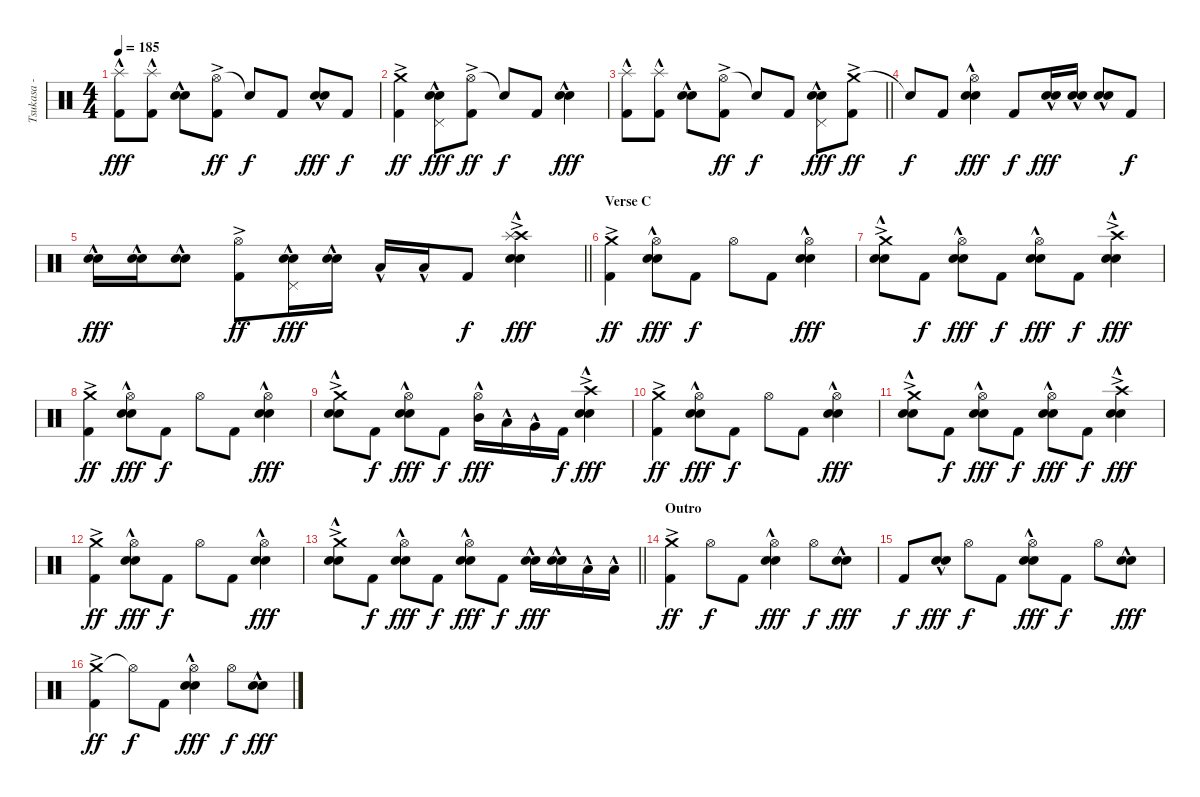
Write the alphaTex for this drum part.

\track ("Tsukasa - Drums" "Tsukasa - ") {instrument percussion}
\staff {score}
\articulation defaults
\ts (4 4)
\tempo 185
\clef neutral
\ks c
("Splash (hit)"{hac} "Kick (hit) 2").8{dy fff} ("Splash (hit)"{hac} "Kick (hit) 2").8 ("Electric Snare (hit)"{hac} "Snare (hit) 2"{hac}).8 ("Hi-Hat (open)"{ac} "Kick (hit) 2").8{dy ff} "Snare (hit)"{t}.8{dy f} "Kick (hit) 2".8 ("Electric Snare (hit)"{hac} "Snare (hit) 2"{hac}).8{dy fff} "Kick (hit) 2".8{dy f} |
("Crash medium (hit)"{ac} "Kick (hit) 2").4{dy ff} ("Pedal Hi-Hat (hit)" "Electric Snare (hit)"{hac} "Snare (hit) 2"{hac}).8{dy fff} ("Hi-Hat (open)"{ac} "Kick (hit) 2").8{dy ff} "Snare (hit)"{t}.8{dy f} "Kick (hit) 2".8 ("Electric Snare (hit)"{hac} "Snare (hit) 2"{hac}).4{dy fff} |
\barLineRight lightlight
("Splash (hit)"{hac} "Kick (hit) 2").8 ("Splash (hit)"{hac} "Kick (hit) 2").8 ("Electric Snare (hit)"{hac} "Snare (hit) 2"{hac}).8 ("Hi-Hat (open)"{ac} "Kick (hit) 2").8{dy ff} "Snare (hit)"{t}.8{dy f} "Kick (hit) 2".8 ("Pedal Hi-Hat (hit)" "Electric Snare (hit)"{hac} "Snare (hit) 2"{hac}).8{dy fff} ("Crash medium (hit)"{ac} "Kick (hit) 2").8{dy ff} |
"Snare (hit)"{t}.8{dy f} "Kick (hit) 2".8 ("Hi-Hat (open)" "Electric Snare (hit)"{hac} "Snare (hit) 2"{hac}).4{dy fff} "Kick (hit) 2".8{dy f} ("Electric Snare (hit)"{hac} "Snare (hit) 2"{hac}).16{dy fff} ("Electric Snare (hit)"{hac} "Snare (hit) 2"{hac}).16 ("Electric Snare (hit)"{hac} "Snare (hit) 2"{hac}).8 "Kick (hit) 2".8{dy f} |
\barLineRight lightlight
("Electric Snare (hit)"{hac} "Snare (hit) 2"{hac}).16{dy fff} ("Electric Snare (hit)"{hac} "Snare (hit) 2"{hac}).16 ("Electric Snare (hit)"{hac} "Snare (hit) 2"{hac}).8 ("Hi-Hat (open)"{ac} "Kick (hit) 2").8{dy ff} ("Pedal Hi-Hat (hit)" "Electric Snare (hit)"{hac} "Snare (hit) 2"{hac}).16{dy fff} ("Electric Snare (hit)"{hac} "Snare (hit) 2"{hac}).16 "Low Tom (hit)"{hac}.16 "Low Tom (hit)"{hac}.16 "Kick (hit) 2".8{dy f} ("Crash high (hit)"{ac} "Splash (hit)"{ac} "Electric Snare (hit)"{hac} "Snare (hit) 2"{hac}).4{dy fff} |
\section ("" "Verse C")
("Crash medium (hit)"{ac} "Kick (hit) 2").4{dy ff} ("Hi-Hat (open)" "Electric Snare (hit)"{hac} "Snare (hit) 2"{hac}).8{dy fff} "Kick (hit) 2".8{dy f} "Hi-Hat (open)".8 "Kick (hit) 2".8 ("Hi-Hat (open)" "Electric Snare (hit)"{hac} "Snare (hit) 2"{hac}).4{dy fff} |
("Crash medium (hit)"{ac} "Electric Snare (hit)"{hac} "Snare (hit) 2"{hac}).8 "Kick (hit) 2".8{dy f} ("Hi-Hat (open)" "Electric Snare (hit)"{hac} "Snare (hit) 2"{hac}).8{dy fff} "Kick (hit) 2".8{dy f} ("Hi-Hat (open)" "Electric Snare (hit)"{hac} "Snare (hit) 2"{hac}).8{dy fff} "Kick (hit) 2".8{dy f} ("Crash high (hit)"{ac} "Electric Snare (hit)"{hac} "Snare (hit) 2"{hac}).4{dy fff} |
("Crash medium (hit)"{ac} "Kick (hit) 2").4{dy ff} ("Hi-Hat (open)" "Electric Snare (hit)"{hac} "Snare (hit) 2"{hac}).8{dy fff} "Kick (hit) 2".8{dy f} "Hi-Hat (open)".8 "Kick (hit) 2".8 ("Hi-Hat (open)" "Electric Snare (hit)"{hac} "Snare (hit) 2"{hac}).4{dy fff} |
("Crash medium (hit)"{ac} "Electric Snare (hit)"{hac} "Snare (hit) 2"{hac}).8 "Kick (hit) 2".8{dy f} ("Hi-Hat (open)" "Electric Snare (hit)"{hac} "Snare (hit) 2"{hac}).8{dy fff} "Kick (hit) 2".8{dy f} ("Hi-Hat (open)" "Mid Tom (hit)"{hac}).16{dy fff} "Low Tom (hit)"{hac}.16 "Very Low Tom (hit)"{hac}.16 "Kick (hit) 2".16{dy f} ("Crash high (hit)"{ac} "Electric Snare (hit)"{hac} "Snare (hit) 2"{hac}).4{dy fff} |
("Crash medium (hit)"{ac} "Kick (hit) 2").4{dy ff} ("Hi-Hat (open)" "Electric Snare (hit)"{hac} "Snare (hit) 2"{hac}).8{dy fff} "Kick (hit) 2".8{dy f} "Hi-Hat (open)".8 "Kick (hit) 2".8 ("Hi-Hat (open)" "Electric Snare (hit)"{hac} "Snare (hit) 2"{hac}).4{dy fff} |
("Crash medium (hit)"{ac} "Electric Snare (hit)"{hac} "Snare (hit) 2"{hac}).8 "Kick (hit) 2".8{dy f} ("Hi-Hat (open)" "Electric Snare (hit)"{hac} "Snare (hit) 2"{hac}).8{dy fff} "Kick (hit) 2".8{dy f} ("Hi-Hat (open)" "Electric Snare (hit)"{hac} "Snare (hit) 2"{hac}).8{dy fff} "Kick (hit) 2".8{dy f} ("Crash high (hit)"{ac} "Electric Snare (hit)"{hac} "Snare (hit) 2"{hac}).4{dy fff} |
("Crash medium (hit)"{ac} "Kick (hit) 2").4{dy ff} ("Hi-Hat (open)" "Electric Snare (hit)"{hac} "Snare (hit) 2"{hac}).8{dy fff} "Kick (hit) 2".8{dy f} "Hi-Hat (open)".8 "Kick (hit) 2".8 ("Hi-Hat (open)" "Electric Snare (hit)"{hac} "Snare (hit) 2"{hac}).4{dy fff} |
\barLineRight lightlight
("Crash medium (hit)"{ac} "Electric Snare (hit)"{hac} "Snare (hit) 2"{hac}).8 "Kick (hit) 2".8{dy f} ("Hi-Hat (open)" "Electric Snare (hit)"{hac} "Snare (hit) 2"{hac}).8{dy fff} "Kick (hit) 2".8{dy f} ("Hi-Hat (open)" "Electric Snare (hit)"{hac} "Snare (hit) 2"{hac}).8{dy fff} "Kick (hit) 2".8{dy f} ("Electric Snare (hit)"{hac} "Snare (hit) 2"{hac}).16{dy fff} ("Electric Snare (hit)"{hac} "Snare (hit) 2"{hac}).16 "Low Tom (hit)"{hac}.16 "Low Tom (hit)"{hac}.16 |
\section ("" "Outro")
("Crash medium (hit)"{ac} "Kick (hit) 2").4{dy ff} "Hi-Hat (open)".8{dy f} "Kick (hit) 2".8 ("Hi-Hat (open)" "Electric Snare (hit)"{hac} "Snare (hit) 2"{hac}).4{dy fff} "Hi-Hat (open)".8{dy f} ("Electric Snare (hit)"{hac} "Snare (hit) 2"{hac}).8{dy fff} |
"Kick (hit) 2".8{dy f} ("Electric Snare (hit)"{hac} "Snare (hit) 2"{hac}).8{dy fff} "Hi-Hat (open)".8{dy f} "Kick (hit) 2".8 ("Hi-Hat (open)" "Electric Snare (hit)"{hac} "Snare (hit) 2"{hac}).8{dy fff} "Kick (hit) 2".8{dy f} "Hi-Hat (open)".8 ("Electric Snare (hit)"{hac} "Snare (hit) 2"{hac}).8{dy fff} |
("Crash medium (hit)"{ac} "Kick (hit) 2").4{dy ff} "Hi-Hat (open)"{t}.8{dy f} "Kick (hit) 2".8 ("Hi-Hat (open)" "Electric Snare (hit)"{hac} "Snare (hit) 2"{hac}).4{dy fff} "Hi-Hat (open)".8{dy f} ("Electric Snare (hit)"{hac} "Snare (hit) 2"{hac}).8{dy fff}
